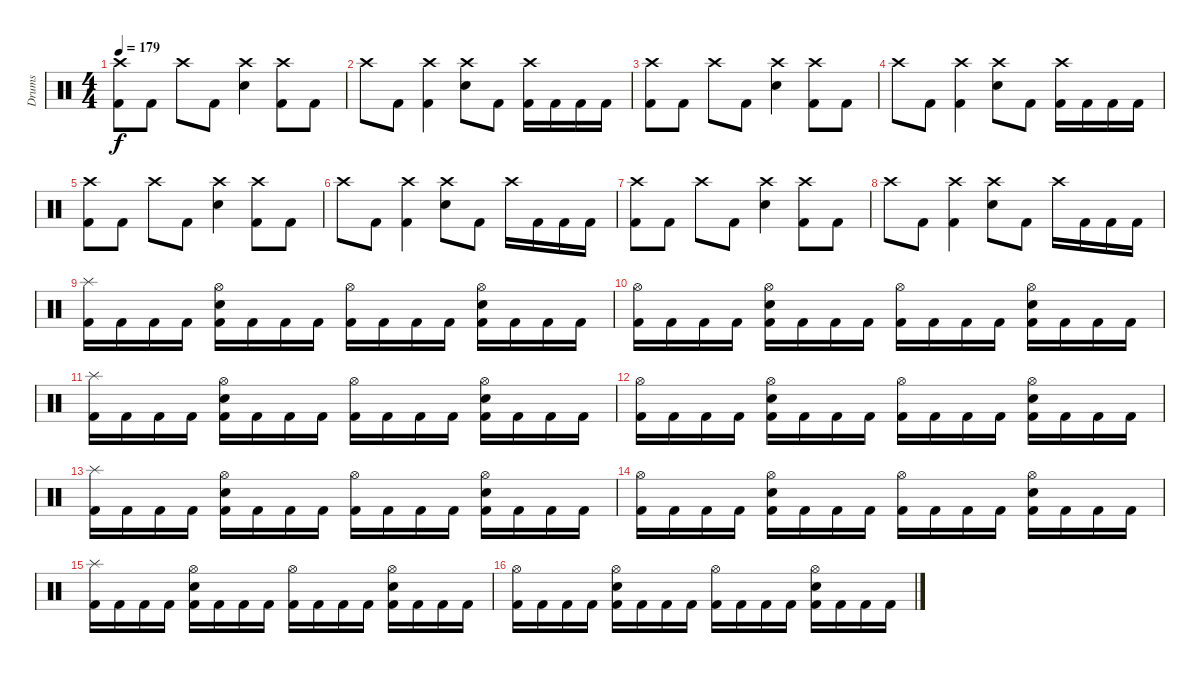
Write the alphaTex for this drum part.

\track ("Drums" "Drums") {instrument percussion}
\staff {score}
\articulation defaults
\ts (4 4)
\tempo 179
\clef neutral
\ks c
("Crash high (hit)" "Kick (hit) 2").8{dy f} "Kick (hit) 2".8 "Crash high (hit)".8 "Kick (hit) 2".8 ("Crash high (hit)" "Snare (hit) 2").4 ("Crash high (hit)" "Kick (hit) 2").8 "Kick (hit) 2".8 |
"Crash high (hit)".8 "Kick (hit) 2".8 ("Crash high (hit)" "Kick (hit) 2").4 ("Crash high (hit)" "Snare (hit) 2").8 "Kick (hit) 2".8 ("Crash high (hit)" "Kick (hit) 2").16 "Kick (hit) 2".16 "Kick (hit) 2".16 "Kick (hit) 2".16 |
("Crash high (hit)" "Kick (hit) 2").8 "Kick (hit) 2".8 "Crash high (hit)".8 "Kick (hit) 2".8 ("Crash high (hit)" "Snare (hit) 2").4 ("Crash high (hit)" "Kick (hit) 2").8 "Kick (hit) 2".8 |
"Crash high (hit)".8 "Kick (hit) 2".8 ("Crash high (hit)" "Kick (hit) 2").4 ("Crash high (hit)" "Snare (hit) 2").8 "Kick (hit) 2".8 ("Crash high (hit)" "Kick (hit) 2").16 "Kick (hit) 2".16 "Kick (hit) 2".16 "Kick (hit) 2".16 |
("Crash high (hit)" "Kick (hit) 2").8 "Kick (hit) 2".8 "Crash high (hit)".8 "Kick (hit) 2".8 ("Crash high (hit)" "Snare (hit) 2").4 ("Crash high (hit)" "Kick (hit) 2").8 "Kick (hit) 2".8 |
"Crash high (hit)".8 "Kick (hit) 2".8 ("Crash high (hit)" "Kick (hit) 2").4 ("Crash high (hit)" "Snare (hit) 2").8 "Kick (hit) 2".8 "Crash high (hit)".16 "Kick (hit) 2".16 "Kick (hit) 2".16 "Kick (hit) 2".16 |
("Crash high (hit)" "Kick (hit) 2").8 "Kick (hit) 2".8 "Crash high (hit)".8 "Kick (hit) 2".8 ("Crash high (hit)" "Snare (hit) 2").4 ("Crash high (hit)" "Kick (hit) 2").8 "Kick (hit) 2".8 |
"Crash high (hit)".8 "Kick (hit) 2".8 ("Crash high (hit)" "Kick (hit) 2").4 ("Crash high (hit)" "Snare (hit) 2").8 "Kick (hit) 2".8 "Crash high (hit)".16 "Kick (hit) 2".16 "Kick (hit) 2".16 "Kick (hit) 2".16 |
("Splash (hit)" "Kick (hit) 2").16 "Kick (hit) 2".16 "Kick (hit) 2".16 "Kick (hit) 2".16 ("Hi-Hat (open)" "Snare (hit) 2" "Kick (hit) 2").16 "Kick (hit) 2".16 "Kick (hit) 2".16 "Kick (hit) 2".16 ("Hi-Hat (open)" "Kick (hit) 2").16 "Kick (hit) 2".16 "Kick (hit) 2".16 "Kick (hit) 2".16 ("Hi-Hat (open)" "Snare (hit) 2" "Kick (hit) 2").16 "Kick (hit) 2".16 "Kick (hit) 2".16 "Kick (hit) 2".16 |
("Hi-Hat (open)" "Kick (hit) 2").16 "Kick (hit) 2".16 "Kick (hit) 2".16 "Kick (hit) 2".16 ("Hi-Hat (open)" "Snare (hit) 2" "Kick (hit) 2").16 "Kick (hit) 2".16 "Kick (hit) 2".16 "Kick (hit) 2".16 ("Hi-Hat (open)" "Kick (hit) 2").16 "Kick (hit) 2".16 "Kick (hit) 2".16 "Kick (hit) 2".16 ("Hi-Hat (open)" "Snare (hit) 2" "Kick (hit) 2").16 "Kick (hit) 2".16 "Kick (hit) 2".16 "Kick (hit) 2".16 |
("Splash (hit)" "Kick (hit) 2").16 "Kick (hit) 2".16 "Kick (hit) 2".16 "Kick (hit) 2".16 ("Hi-Hat (open)" "Snare (hit) 2" "Kick (hit) 2").16 "Kick (hit) 2".16 "Kick (hit) 2".16 "Kick (hit) 2".16 ("Hi-Hat (open)" "Kick (hit) 2").16 "Kick (hit) 2".16 "Kick (hit) 2".16 "Kick (hit) 2".16 ("Hi-Hat (open)" "Snare (hit) 2" "Kick (hit) 2").16 "Kick (hit) 2".16 "Kick (hit) 2".16 "Kick (hit) 2".16 |
("Hi-Hat (open)" "Kick (hit) 2").16 "Kick (hit) 2".16 "Kick (hit) 2".16 "Kick (hit) 2".16 ("Hi-Hat (open)" "Snare (hit) 2" "Kick (hit) 2").16 "Kick (hit) 2".16 "Kick (hit) 2".16 "Kick (hit) 2".16 ("Hi-Hat (open)" "Kick (hit) 2").16 "Kick (hit) 2".16 "Kick (hit) 2".16 "Kick (hit) 2".16 ("Hi-Hat (open)" "Snare (hit) 2" "Kick (hit) 2").16 "Kick (hit) 2".16 "Kick (hit) 2".16 "Kick (hit) 2".16 |
("Splash (hit)" "Kick (hit) 2").16 "Kick (hit) 2".16 "Kick (hit) 2".16 "Kick (hit) 2".16 ("Hi-Hat (open)" "Snare (hit) 2" "Kick (hit) 2").16 "Kick (hit) 2".16 "Kick (hit) 2".16 "Kick (hit) 2".16 ("Hi-Hat (open)" "Kick (hit) 2").16 "Kick (hit) 2".16 "Kick (hit) 2".16 "Kick (hit) 2".16 ("Hi-Hat (open)" "Snare (hit) 2" "Kick (hit) 2").16 "Kick (hit) 2".16 "Kick (hit) 2".16 "Kick (hit) 2".16 |
("Hi-Hat (open)" "Kick (hit) 2").16 "Kick (hit) 2".16 "Kick (hit) 2".16 "Kick (hit) 2".16 ("Hi-Hat (open)" "Snare (hit) 2" "Kick (hit) 2").16 "Kick (hit) 2".16 "Kick (hit) 2".16 "Kick (hit) 2".16 ("Hi-Hat (open)" "Kick (hit) 2").16 "Kick (hit) 2".16 "Kick (hit) 2".16 "Kick (hit) 2".16 ("Hi-Hat (open)" "Snare (hit) 2" "Kick (hit) 2").16 "Kick (hit) 2".16 "Kick (hit) 2".16 "Kick (hit) 2".16 |
("Splash (hit)" "Kick (hit) 2").16 "Kick (hit) 2".16 "Kick (hit) 2".16 "Kick (hit) 2".16 ("Hi-Hat (open)" "Snare (hit) 2" "Kick (hit) 2").16 "Kick (hit) 2".16 "Kick (hit) 2".16 "Kick (hit) 2".16 ("Hi-Hat (open)" "Kick (hit) 2").16 "Kick (hit) 2".16 "Kick (hit) 2".16 "Kick (hit) 2".16 ("Hi-Hat (open)" "Snare (hit) 2" "Kick (hit) 2").16 "Kick (hit) 2".16 "Kick (hit) 2".16 "Kick (hit) 2".16 |
("Hi-Hat (open)" "Kick (hit) 2").16 "Kick (hit) 2".16 "Kick (hit) 2".16 "Kick (hit) 2".16 ("Hi-Hat (open)" "Snare (hit) 2" "Kick (hit) 2").16 "Kick (hit) 2".16 "Kick (hit) 2".16 "Kick (hit) 2".16 ("Hi-Hat (open)" "Kick (hit) 2").16 "Kick (hit) 2".16 "Kick (hit) 2".16 "Kick (hit) 2".16 ("Hi-Hat (open)" "Snare (hit) 2" "Kick (hit) 2").16 "Kick (hit) 2".16 "Kick (hit) 2".16 "Kick (hit) 2".16
